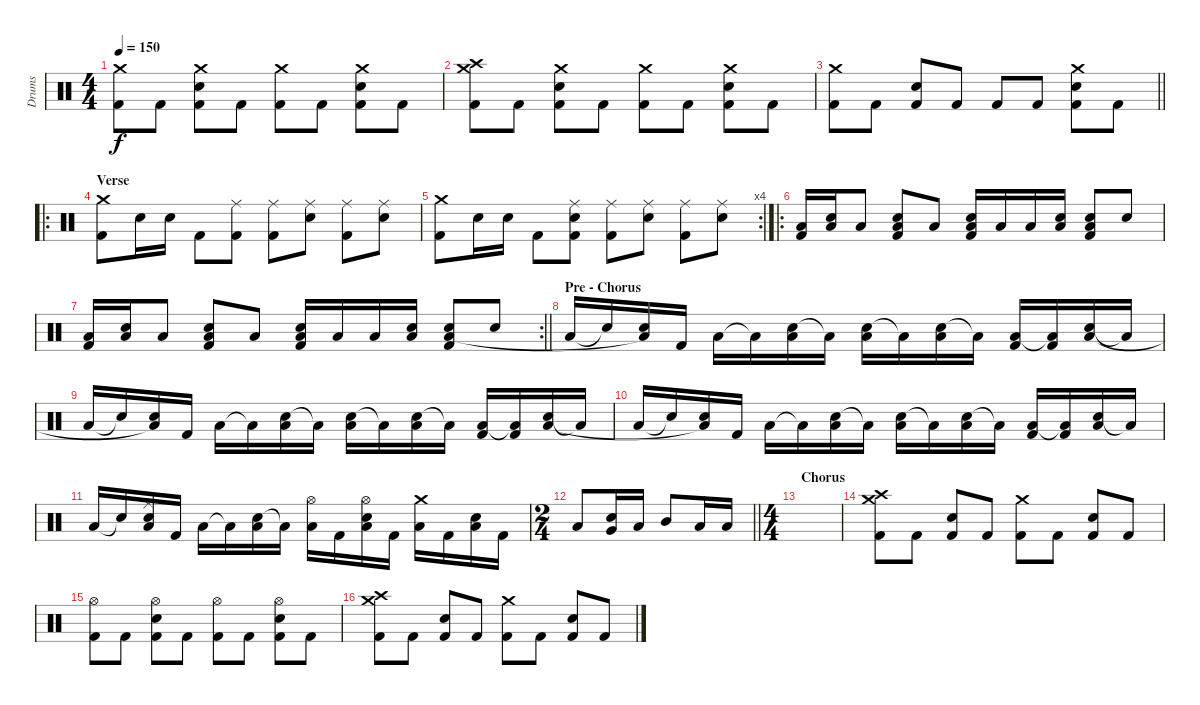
\track ("Drums" "Drums") {instrument percussion}
\staff {score}
\articulation defaults
\ts (4 4)
\tempo 150
\clef neutral
\ks c
("Crash medium (hit)" "Kick (hit) 2").8{dy f} "Kick (hit) 2".8 ("Crash medium (hit)" "Electric Snare (hit)" "Kick (hit) 2").8 "Kick (hit) 2".8 ("Crash medium (hit)" "Kick (hit) 2").8 "Kick (hit) 2".8 ("Crash medium (hit)" "Electric Snare (hit)" "Kick (hit) 2").8 "Kick (hit) 2".8 |
("Crash medium (hit)" "Crash high (hit)" "Kick (hit) 2").8 "Kick (hit) 2".8 ("Crash medium (hit)" "Electric Snare (hit)" "Kick (hit) 2").8 "Kick (hit) 2".8 ("Crash medium (hit)" "Kick (hit) 2").8 "Kick (hit) 2".8 ("Crash medium (hit)" "Electric Snare (hit)" "Kick (hit) 2").8 "Kick (hit) 2".8 |
\barLineRight lightlight
("Crash medium (hit)" "Kick (hit) 2").8 "Kick (hit) 2".8 ("Electric Snare (hit)" "Kick (hit) 2").8 "Kick (hit) 2".8 "Kick (hit) 2".8 "Kick (hit) 2".8 ("Crash medium (hit)" "Electric Snare (hit)" "Kick (hit) 2").8 "Kick (hit) 2".8 |
\ro
\section ("" "Verse")
("Crash medium (hit)" "Kick (hit) 2").8 "Electric Snare (hit)".16 "Snare (hit) 2".16 "Kick (hit) 2".8 ("Ride (middle)" "Kick (hit) 2").8 ("Ride (middle)" "Kick (hit) 2").8 ("Ride (middle)" "Electric Snare (hit)").8 ("Ride (middle)" "Kick (hit) 2").8 ("Ride (middle)" "Electric Snare (hit)").8 |
\rc 4
("Crash medium (hit)" "Kick (hit) 2").8 "Electric Snare (hit)".16 "Snare (hit) 2".16 "Kick (hit) 2".8 ("Ride (middle)" "Electric Snare (hit)" "Kick (hit) 2").8 ("Ride (middle)" "Kick (hit) 2").8 ("Ride (middle)" "Electric Snare (hit)").8 ("Ride (middle)" "Kick (hit) 2").8 ("Ride (middle)" "Electric Snare (hit)").8 |
\ro
("Low Floor Tom (hit)" "Kick (hit) 2").16 ("Electric Snare (hit)" "Low Floor Tom (hit)").16 "Low Floor Tom (hit)".8 ("Electric Snare (hit)" "Low Floor Tom (hit)" "Kick (hit) 2").8 "Low Floor Tom (hit)".8 ("Electric Snare (hit)" "Low Floor Tom (hit)" "Kick (hit) 2").16 "Low Floor Tom (hit)".16 "Low Floor Tom (hit)".16 ("Electric Snare (hit)" "Low Floor Tom (hit)").16 ("Snare (hit) 2" "Low Floor Tom (hit)" "Kick (hit) 2").8 "Electric Snare (hit)".8 |
\rc 2
\barLineRight lightlight
("Low Floor Tom (hit)" "Kick (hit) 2").16 ("Electric Snare (hit)" "Low Floor Tom (hit)").16 "Low Floor Tom (hit)".8 ("Electric Snare (hit)" "Low Floor Tom (hit)" "Kick (hit) 2").8 "Low Floor Tom (hit)".8 ("Electric Snare (hit)" "Low Floor Tom (hit)" "Kick (hit) 2").16 "Low Floor Tom (hit)".16 "Low Floor Tom (hit)".16 ("Electric Snare (hit)" "Low Floor Tom (hit)").16 ("Snare (hit) 2" "Low Floor Tom (hit)" "Kick (hit) 2").8 "Electric Snare (hit)".8 |
\section ("" "Pre - Chorus")
"Low Floor Tom (hit)".16 "Electric Snare (hit)"{t}.16 ("Electric Snare (hit)" "Low Floor Tom (hit)"{t}).16 "Kick (hit) 2".16 "Low Floor Tom (hit)".16 "Low Floor Tom (hit)"{t}.16 ("Electric Snare (hit)" "Low Floor Tom (hit)").16 "Low Floor Tom (hit)"{t}.16 ("Snare (hit) 2" "Low Floor Tom (hit)").16 "Low Floor Tom (hit)"{t}.16 ("Electric Snare (hit)" "Low Floor Tom (hit)").16 "Low Floor Tom (hit)"{t}.16 ("Kick (hit) 2" "Low Floor Tom (hit)").16 ("Kick (hit) 2" "Low Floor Tom (hit)"{t}).16 ("Electric Snare (hit)" "Low Floor Tom (hit)").16 "Low Floor Tom (hit)"{t}.16 |
"Low Floor Tom (hit)".16 "Electric Snare (hit)"{t}.16 ("Electric Snare (hit)" "Low Floor Tom (hit)"{t}).16 "Kick (hit) 2".16 "Low Floor Tom (hit)".16 "Low Floor Tom (hit)"{t}.16 ("Electric Snare (hit)" "Low Floor Tom (hit)").16 "Low Floor Tom (hit)"{t}.16 ("Snare (hit) 2" "Low Floor Tom (hit)").16 "Low Floor Tom (hit)"{t}.16 ("Electric Snare (hit)" "Low Floor Tom (hit)").16 "Low Floor Tom (hit)"{t}.16 ("Kick (hit) 2" "Low Floor Tom (hit)").16 ("Kick (hit) 2" "Low Floor Tom (hit)"{t}).16 ("Electric Snare (hit)" "Low Floor Tom (hit)").16 "Low Floor Tom (hit)"{t}.16 |
"Low Floor Tom (hit)".16 "Electric Snare (hit)"{t}.16 ("Electric Snare (hit)" "Low Floor Tom (hit)"{t}).16 "Kick (hit) 2".16 "Low Floor Tom (hit)".16 "Low Floor Tom (hit)"{t}.16 ("Electric Snare (hit)" "Low Floor Tom (hit)").16 "Low Floor Tom (hit)"{t}.16 ("Snare (hit) 2" "Low Floor Tom (hit)").16 "Low Floor Tom (hit)"{t}.16 ("Electric Snare (hit)" "Low Floor Tom (hit)").16 "Low Floor Tom (hit)"{t}.16 ("Kick (hit) 2" "Low Floor Tom (hit)").16 ("Kick (hit) 2" "Low Floor Tom (hit)"{t}).16 ("Electric Snare (hit)" "Low Floor Tom (hit)").16 "Low Floor Tom (hit)"{t}.16 |
"Low Floor Tom (hit)".16 "Electric Snare (hit)"{t}.16 ("Ride (middle)" "Electric Snare (hit)" "Low Floor Tom (hit)").16 "Kick (hit) 2".16 "Low Floor Tom (hit)".16 "Low Floor Tom (hit)"{t}.16 ("Electric Snare (hit)" "Low Floor Tom (hit)").16 "Low Floor Tom (hit)"{t}.16 ("Hi-Hat (open)" "Low Floor Tom (hit)").16 "Kick (hit) 2".16 ("Hi-Hat (open)" "Electric Snare (hit)" "Low Floor Tom (hit)").16 "Kick (hit) 2".16 ("Crash medium (hit)" "Low Floor Tom (hit)").16 "Kick (hit) 2".16 ("Electric Snare (hit)" "Low Floor Tom (hit)").16 "Kick (hit) 2".16 |
\ts (2 4)
\barLineRight lightlight "Low Floor Tom (hit)".8
("Electric Snare (hit)" "Very Low Tom (hit)").16 "Low Tom (hit)".16 "Mid Tom (hit)".8 "Low Floor Tom (hit)".16 "Low Floor Tom (hit)".16 |
\ts (4 4)
\section ("" "Chorus")
|
("Crash medium (hit)" "Crash high (hit)" "Kick (hit) 2").8 "Kick (hit) 2".8 ("Electric Snare (hit)" "Kick (hit) 2").8 "Kick (hit) 2".8 ("Crash medium (hit)" "Kick (hit) 2").8 "Kick (hit) 2".8 ("Electric Snare (hit)" "Kick (hit) 2").8 "Kick (hit) 2".8 |
("Hi-Hat (open)" "Kick (hit) 2").8 "Kick (hit) 2".8 ("Hi-Hat (open)" "Electric Snare (hit)" "Kick (hit) 2").8 "Kick (hit) 2".8 ("Hi-Hat (open)" "Kick (hit) 2").8 "Kick (hit) 2".8 ("Hi-Hat (open)" "Electric Snare (hit)" "Kick (hit) 2").8 "Kick (hit) 2".8 |
("Crash medium (hit)" "Crash high (hit)" "Kick (hit) 2").8 "Kick (hit) 2".8 ("Electric Snare (hit)" "Kick (hit) 2").8 "Kick (hit) 2".8 ("Crash medium (hit)" "Kick (hit) 2").8 "Kick (hit) 2".8 ("Electric Snare (hit)" "Kick (hit) 2").8 "Kick (hit) 2".8
